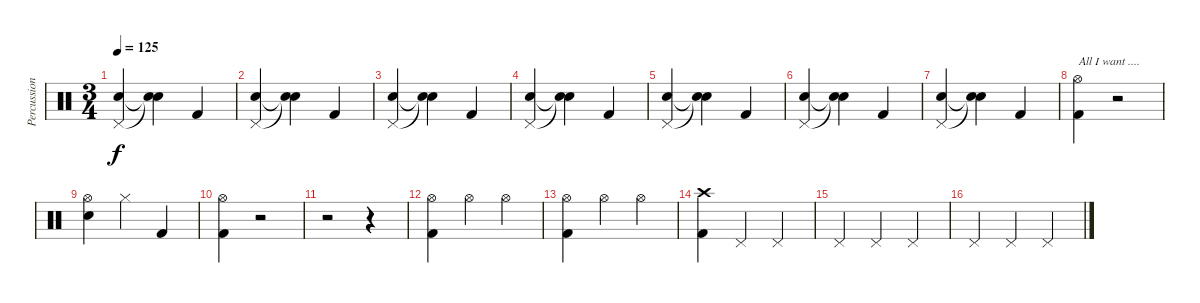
\track ("Percussion" "Percussion") {instrument percussion}
\staff {score}
\articulation defaults
\ts (3 4)
\tempo 125
\clef neutral
\ks c
("Pedal Hi-Hat (hit)" "Snare (hit) 2").4{dy f} ("Snare (hit)"{t} "Snare (hit)"{t}).4 "Kick (hit) 2".4 |
("Pedal Hi-Hat (hit)" "Snare (hit) 2").4 ("Snare (hit)"{t} "Snare (hit)"{t}).4 "Kick (hit) 2".4 |
("Pedal Hi-Hat (hit)" "Snare (hit) 2").4 ("Snare (hit)"{t} "Snare (hit)"{t}).4 "Kick (hit) 2".4 |
("Pedal Hi-Hat (hit)" "Snare (hit) 2").4 ("Snare (hit)"{t} "Snare (hit)"{t}).4 "Kick (hit) 2".4 |
("Pedal Hi-Hat (hit)" "Snare (hit) 2").4 ("Snare (hit)"{t} "Snare (hit)"{t}).4 "Kick (hit) 2".4 |
("Pedal Hi-Hat (hit)" "Snare (hit) 2").4 ("Snare (hit)"{t} "Snare (hit)"{t}).4 "Kick (hit) 2".4 |
("Pedal Hi-Hat (hit)" "Snare (hit) 2").4 ("Snare (hit)"{t} "Snare (hit)"{t}).4 "Kick (hit) 2".4 |
("Hi-Hat (open)" "Kick (hit) 2").4{txt "All I want ...."} r.2 |
("Hi-Hat (open)" "Snare (hit) 2").4 "Hi-Hat (closed)".4 "Kick (hit) 2".4 |
("Hi-Hat (open)" "Kick (hit) 2").4 r.2 |
r.2 r.4 |
("Hi-Hat (open)" "Kick (hit) 2").4 "Hi-Hat (open)".4 "Hi-Hat (open)".4 |
("Hi-Hat (open)" "Kick (hit) 2").4 "Hi-Hat (open)".4 "Hi-Hat (open)".4 |
("Crash high (hit)" "Kick (hit) 2").4 "Pedal Hi-Hat (hit)".4 "Pedal Hi-Hat (hit)".4 |
"Pedal Hi-Hat (hit)".4 "Pedal Hi-Hat (hit)".4 "Pedal Hi-Hat (hit)".4 |
"Pedal Hi-Hat (hit)".4 "Pedal Hi-Hat (hit)".4 "Pedal Hi-Hat (hit)".4
